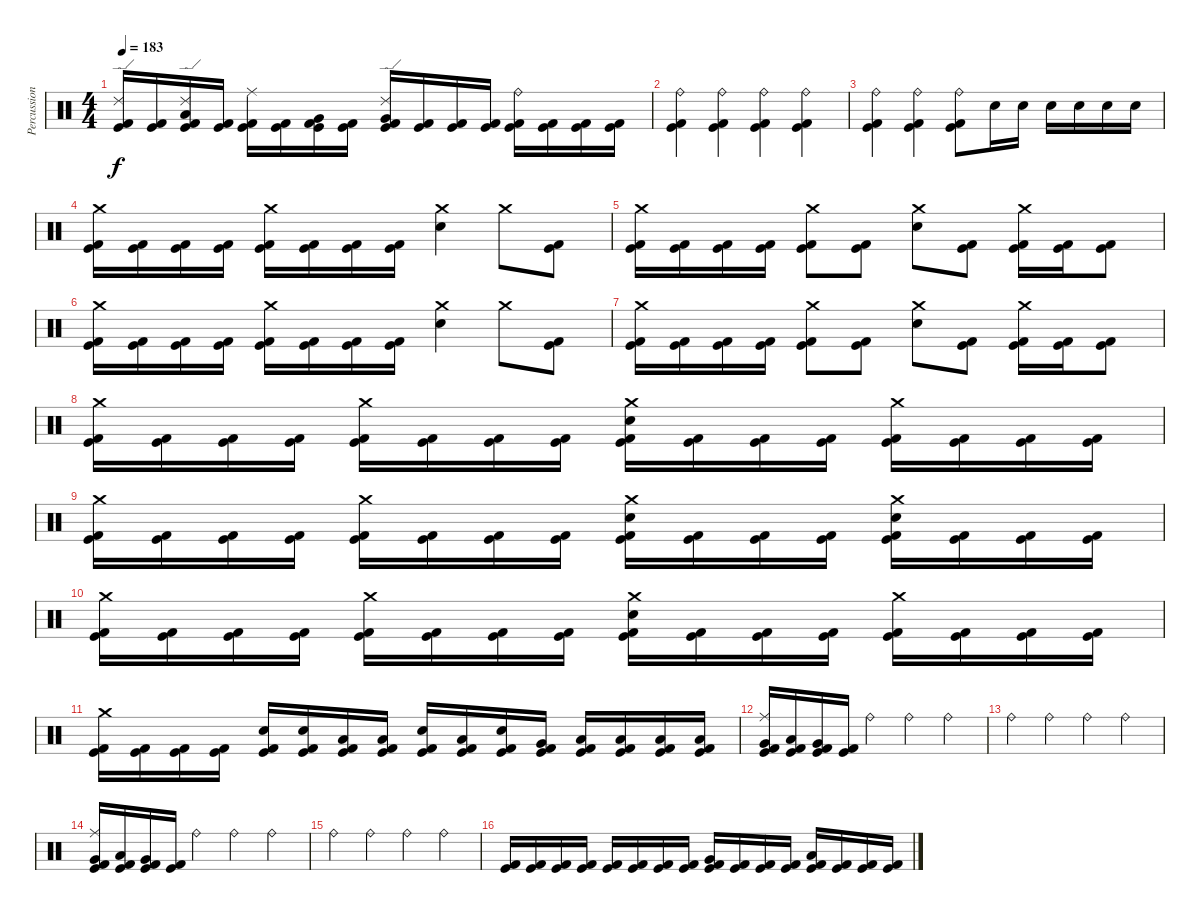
\track ("Percussion" "Percussion") {instrument percussion}
\staff {score}
\articulation defaults
\ts (4 4)
\tempo 183
\clef neutral
\ks c
("Ride (edge) 2" "Kick (hit)" "Kick (hit) 2").16{dy f} ("Kick (hit)" "Kick (hit) 2").16 ("Ride (edge) 2" "Low Floor Tom (hit)" "Kick (hit)" "Kick (hit) 2").16 ("Kick (hit)" "Kick (hit) 2").16 ("Ride (middle)" "Kick (hit)" "Kick (hit) 2").16 ("Kick (hit)" "Kick (hit) 2").16 ("Very Low Tom (hit)" "Kick (hit)" "Kick (hit) 2").16 ("Kick (hit)" "Kick (hit) 2").16 ("Ride (edge) 2" "Very Low Tom (hit)" "Kick (hit)" "Kick (hit) 2").16 ("Kick (hit)" "Kick (hit) 2").16 ("Kick (hit)" "Kick (hit) 2").16 ("Kick (hit)" "Kick (hit) 2").16 ("Ride (bell)" "Kick (hit)" "Kick (hit) 2").16 ("Kick (hit)" "Kick (hit) 2").16 ("Kick (hit)" "Kick (hit) 2").16 ("Kick (hit)" "Kick (hit) 2").16 |
("Ride (bell)" "Kick (hit)" "Kick (hit) 2").4 ("Ride (bell)" "Kick (hit)" "Kick (hit) 2").4 ("Ride (bell)" "Kick (hit)" "Kick (hit) 2").4 ("Ride (bell)" "Kick (hit)" "Kick (hit) 2").4 |
("Ride (bell)" "Kick (hit)" "Kick (hit) 2").4 ("Ride (bell)" "Kick (hit)" "Kick (hit) 2").4 ("Ride (bell)" "Kick (hit)" "Kick (hit) 2").8 "Electric Snare (hit)".16 "Electric Snare (hit)".16 "Electric Snare (hit)".16 "Electric Snare (hit)".16 "Electric Snare (hit)".16 "Electric Snare (hit)".16 |
("Crash medium (hit)" "Kick (hit)" "Kick (hit) 2").16 ("Kick (hit)" "Kick (hit) 2").16 ("Kick (hit)" "Kick (hit) 2").16 ("Kick (hit)" "Kick (hit) 2").16 ("Crash medium (hit)" "Kick (hit)" "Kick (hit) 2").16 ("Kick (hit)" "Kick (hit) 2").16 ("Kick (hit)" "Kick (hit) 2").16 ("Kick (hit)" "Kick (hit) 2").16 ("Crash medium (hit)" "Electric Snare (hit)").4 "Crash medium (hit)".8 ("Kick (hit)" "Kick (hit) 2").8 |
("Crash medium (hit)" "Kick (hit)" "Kick (hit) 2").16 ("Kick (hit)" "Kick (hit) 2").16 ("Kick (hit)" "Kick (hit) 2").16 ("Kick (hit)" "Kick (hit) 2").16 ("Crash medium (hit)" "Kick (hit)" "Kick (hit) 2").8 ("Kick (hit)" "Kick (hit) 2").8 ("Crash medium (hit)" "Electric Snare (hit)").8 ("Kick (hit)" "Kick (hit) 2").8 ("Crash medium (hit)" "Kick (hit)" "Kick (hit) 2").16 ("Kick (hit)" "Kick (hit) 2").16 ("Kick (hit)" "Kick (hit) 2").8 |
("Crash medium (hit)" "Kick (hit)" "Kick (hit) 2").16 ("Kick (hit)" "Kick (hit) 2").16 ("Kick (hit)" "Kick (hit) 2").16 ("Kick (hit)" "Kick (hit) 2").16 ("Crash medium (hit)" "Kick (hit)" "Kick (hit) 2").16 ("Kick (hit)" "Kick (hit) 2").16 ("Kick (hit)" "Kick (hit) 2").16 ("Kick (hit)" "Kick (hit) 2").16 ("Crash medium (hit)" "Electric Snare (hit)").4 "Crash medium (hit)".8 ("Kick (hit)" "Kick (hit) 2").8 |
("Crash medium (hit)" "Kick (hit)" "Kick (hit) 2").16 ("Kick (hit)" "Kick (hit) 2").16 ("Kick (hit)" "Kick (hit) 2").16 ("Kick (hit)" "Kick (hit) 2").16 ("Crash medium (hit)" "Kick (hit)" "Kick (hit) 2").8 ("Kick (hit)" "Kick (hit) 2").8 ("Crash medium (hit)" "Electric Snare (hit)").8 ("Kick (hit)" "Kick (hit) 2").8 ("Crash medium (hit)" "Kick (hit)" "Kick (hit) 2").16 ("Kick (hit)" "Kick (hit) 2").16 ("Kick (hit)" "Kick (hit) 2").8 |
("Crash medium (hit)" "Kick (hit)" "Kick (hit) 2").16 ("Kick (hit)" "Kick (hit) 2").16 ("Kick (hit)" "Kick (hit) 2").16 ("Kick (hit)" "Kick (hit) 2").16 ("Crash medium (hit)" "Kick (hit)" "Kick (hit) 2").16 ("Kick (hit)" "Kick (hit) 2").16 ("Kick (hit)" "Kick (hit) 2").16 ("Kick (hit)" "Kick (hit) 2").16 ("Crash medium (hit)" "Electric Snare (hit)" "Kick (hit)" "Kick (hit) 2").16 ("Kick (hit)" "Kick (hit) 2").16 ("Kick (hit)" "Kick (hit) 2").16 ("Kick (hit)" "Kick (hit) 2").16 ("Crash medium (hit)" "Kick (hit)" "Kick (hit) 2").16 ("Kick (hit)" "Kick (hit) 2").16 ("Kick (hit)" "Kick (hit) 2").16 ("Kick (hit)" "Kick (hit) 2").16 |
("Crash medium (hit)" "Kick (hit)" "Kick (hit) 2").16 ("Kick (hit)" "Kick (hit) 2").16 ("Kick (hit)" "Kick (hit) 2").16 ("Kick (hit)" "Kick (hit) 2").16 ("Crash medium (hit)" "Kick (hit)" "Kick (hit) 2").16 ("Kick (hit)" "Kick (hit) 2").16 ("Kick (hit)" "Kick (hit) 2").16 ("Kick (hit)" "Kick (hit) 2").16 ("Crash medium (hit)" "Electric Snare (hit)" "Kick (hit)" "Kick (hit) 2").16 ("Kick (hit)" "Kick (hit) 2").16 ("Kick (hit)" "Kick (hit) 2").16 ("Kick (hit)" "Kick (hit) 2").16 ("Crash medium (hit)" "Electric Snare (hit)" "Kick (hit)" "Kick (hit) 2").16 ("Kick (hit)" "Kick (hit) 2").16 ("Kick (hit)" "Kick (hit) 2").16 ("Kick (hit)" "Kick (hit) 2").16 |
("Crash medium (hit)" "Kick (hit)" "Kick (hit) 2").16 ("Kick (hit)" "Kick (hit) 2").16 ("Kick (hit)" "Kick (hit) 2").16 ("Kick (hit)" "Kick (hit) 2").16 ("Crash medium (hit)" "Kick (hit)" "Kick (hit) 2").16 ("Kick (hit)" "Kick (hit) 2").16 ("Kick (hit)" "Kick (hit) 2").16 ("Kick (hit)" "Kick (hit) 2").16 ("Crash medium (hit)" "Electric Snare (hit)" "Kick (hit)" "Kick (hit) 2").16 ("Kick (hit)" "Kick (hit) 2").16 ("Kick (hit)" "Kick (hit) 2").16 ("Kick (hit)" "Kick (hit) 2").16 ("Crash medium (hit)" "Kick (hit)" "Kick (hit) 2").16 ("Kick (hit)" "Kick (hit) 2").16 ("Kick (hit)" "Kick (hit) 2").16 ("Kick (hit)" "Kick (hit) 2").16 |
("Crash medium (hit)" "Kick (hit)" "Kick (hit) 2").16 ("Kick (hit)" "Kick (hit) 2").16 ("Kick (hit)" "Kick (hit) 2").16 ("Kick (hit)" "Kick (hit) 2").16 ("Electric Snare (hit)" "Kick (hit)" "Kick (hit) 2").16 ("Electric Snare (hit)" "Kick (hit)" "Kick (hit) 2").16 ("Low Tom (hit)" "Kick (hit)" "Kick (hit) 2").16 ("Low Tom (hit)" "Kick (hit)" "Kick (hit) 2").16 ("Electric Snare (hit)" "Kick (hit)" "Kick (hit) 2").16 ("Low Tom (hit)" "Kick (hit)" "Kick (hit) 2").16 ("Electric Snare (hit)" "Kick (hit)" "Kick (hit) 2").16 ("Very Low Tom (hit)" "Kick (hit)" "Kick (hit) 2").16 ("Low Tom (hit)" "Kick (hit)" "Kick (hit) 2").16 ("Low Tom (hit)" "Kick (hit)" "Kick (hit) 2").16 ("Low Tom (hit)" "Kick (hit)" "Kick (hit) 2").16 ("Low Tom (hit)" "Kick (hit)" "Kick (hit) 2").16 |
("Ride (middle)" "Very Low Tom (hit)" "Kick (hit)" "Kick (hit) 2").16 ("Low Floor Tom (hit)" "Kick (hit)" "Kick (hit) 2").16 ("Very Low Tom (hit)" "Kick (hit)" "Kick (hit) 2").16 ("Kick (hit)" "Kick (hit) 2").16 "Ride (bell)".4 "Ride (bell)".4 "Ride (bell)".4 |
"Ride (bell)".4 "Ride (bell)".4 "Ride (bell)".4 "Ride (bell)".4 |
("Ride (middle)" "Very Low Tom (hit)" "Kick (hit)" "Kick (hit) 2").16 ("Low Floor Tom (hit)" "Kick (hit)" "Kick (hit) 2").16 ("Very Low Tom (hit)" "Kick (hit)" "Kick (hit) 2").16 ("Kick (hit)" "Kick (hit) 2").16 "Ride (bell)".4 "Ride (bell)".4 "Ride (bell)".4 |
"Ride (bell)".4 "Ride (bell)".4 "Ride (bell)".4 "Ride (bell)".4 |
("Kick (hit)" "Kick (hit) 2").16 ("Kick (hit)" "Kick (hit) 2").16 ("Kick (hit)" "Kick (hit) 2").16 ("Kick (hit)" "Kick (hit) 2").16 ("Kick (hit)" "Kick (hit) 2").16 ("Kick (hit)" "Kick (hit) 2").16 ("Kick (hit)" "Kick (hit) 2").16 ("Kick (hit)" "Kick (hit) 2").16 ("Very Low Tom (hit)" "Kick (hit)" "Kick (hit) 2").16 ("Kick (hit)" "Kick (hit) 2").16 ("Kick (hit)" "Kick (hit) 2").16 ("Kick (hit)" "Kick (hit) 2").16 ("Low Floor Tom (hit)" "Kick (hit)" "Kick (hit) 2").16 ("Kick (hit)" "Kick (hit) 2").16 ("Kick (hit)" "Kick (hit) 2").16 ("Kick (hit)" "Kick (hit) 2").16
